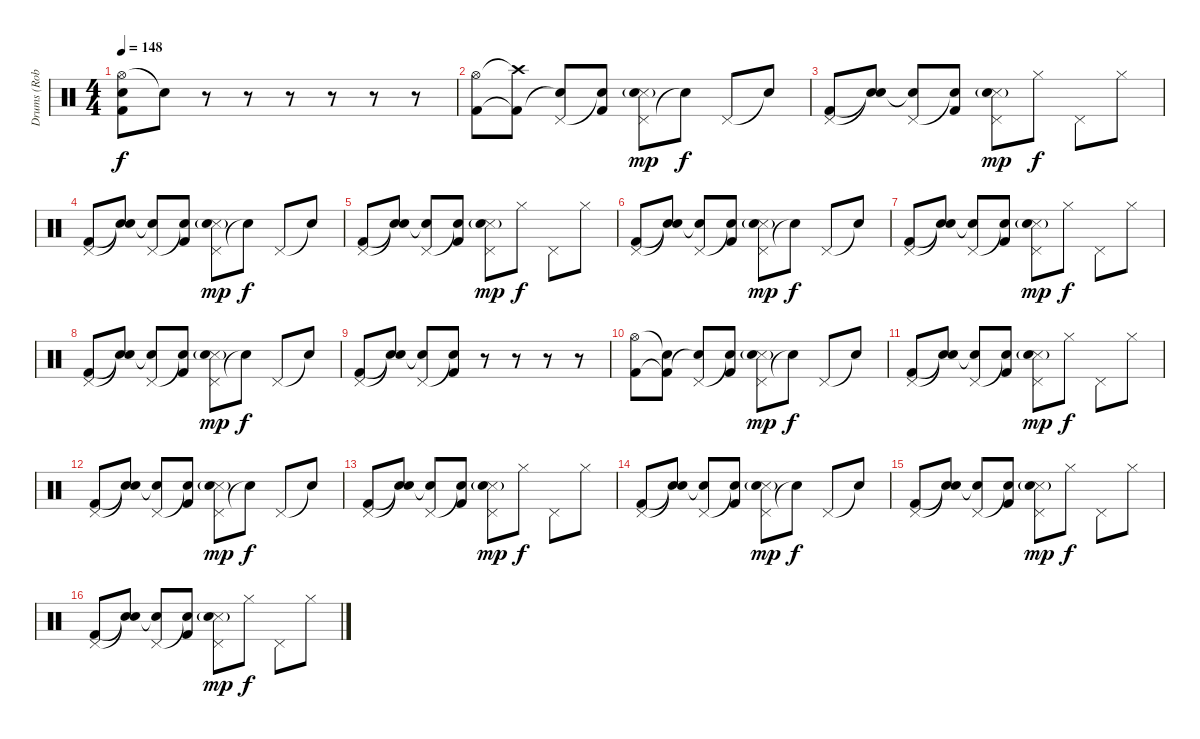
\track ("Drums (Rob Bourdon)" "Drums (Rob") {instrument percussion}
\staff {score}
\articulation defaults
\ts (4 4)
\tempo 148
\clef neutral
\ks c
("Hi-Hat (open)" "Electric Snare (hit)" "Kick (hit) 2").8{dy f} "Snare (hit)"{t}.8 r.8 r.8 r.8 r.8 r.8 r.8 |
("Hi-Hat (open)" "Kick (hit) 2").8 ("Crash high (hit)"{t} "Kick (hit) 2"{t}).8 ("Pedal Hi-Hat (hit)" "Snare (hit)"{t}).8 ("Snare (hit)"{t} "Kick (hit) 2").8 ("Pedal Hi-Hat (hit)" "Snare (side stick) 3" "Electric Snare (hit)"{g}).8{dy mp} "Snare (hit)"{t}.8{dy f} "Pedal Hi-Hat (hit)".8 "Snare (hit)"{t}.8 |
("Pedal Hi-Hat (hit)" "Kick (hit) 2").8 ("Snare (hit)"{t} "Snare (hit)"{t}).8 ("Pedal Hi-Hat (hit)" "Snare (hit)"{t}).8 ("Snare (hit)"{t} "Kick (hit) 2").8 ("Pedal Hi-Hat (hit)" "Snare (side stick) 3" "Electric Snare (hit)"{g}).8{dy mp} "Hi-Hat (closed)".8{dy f} "Pedal Hi-Hat (hit)".8 "Hi-Hat (closed)".8 |
("Pedal Hi-Hat (hit)" "Kick (hit) 2").8 ("Snare (hit)"{t} "Snare (hit)"{t}).8 ("Pedal Hi-Hat (hit)" "Snare (hit)"{t}).8 ("Snare (hit)"{t} "Kick (hit) 2").8 ("Pedal Hi-Hat (hit)" "Snare (side stick) 3" "Electric Snare (hit)"{g}).8{dy mp} "Snare (hit)"{t}.8{dy f} "Pedal Hi-Hat (hit)".8 "Snare (hit)"{t}.8 |
("Pedal Hi-Hat (hit)" "Kick (hit) 2").8 ("Snare (hit)"{t} "Snare (hit)"{t}).8 ("Pedal Hi-Hat (hit)" "Snare (hit)"{t}).8 ("Snare (hit)"{t} "Kick (hit) 2").8 ("Pedal Hi-Hat (hit)" "Snare (side stick) 3" "Electric Snare (hit)"{g}).8{dy mp} "Hi-Hat (closed)".8{dy f} "Pedal Hi-Hat (hit)".8 "Hi-Hat (closed)".8 |
("Pedal Hi-Hat (hit)" "Kick (hit) 2").8 ("Snare (hit)"{t} "Snare (hit)"{t}).8 ("Pedal Hi-Hat (hit)" "Snare (hit)"{t}).8 ("Snare (hit)"{t} "Kick (hit) 2").8 ("Pedal Hi-Hat (hit)" "Snare (side stick) 3" "Electric Snare (hit)"{g}).8{dy mp} "Snare (hit)"{t}.8{dy f} "Pedal Hi-Hat (hit)".8 "Snare (hit)"{t}.8 |
("Pedal Hi-Hat (hit)" "Kick (hit) 2").8 ("Snare (hit)"{t} "Snare (hit)"{t}).8 ("Pedal Hi-Hat (hit)" "Snare (hit)"{t}).8 ("Snare (hit)"{t} "Kick (hit) 2").8 ("Pedal Hi-Hat (hit)" "Snare (side stick) 3" "Electric Snare (hit)"{g}).8{dy mp} "Hi-Hat (closed)".8{dy f} "Pedal Hi-Hat (hit)".8 "Hi-Hat (closed)".8 |
("Pedal Hi-Hat (hit)" "Kick (hit) 2").8 ("Snare (hit)"{t} "Snare (hit)"{t}).8 ("Pedal Hi-Hat (hit)" "Snare (hit)"{t}).8 ("Snare (hit)"{t} "Kick (hit) 2").8 ("Pedal Hi-Hat (hit)" "Snare (side stick) 3" "Electric Snare (hit)"{g}).8{dy mp} "Snare (hit)"{t}.8{dy f} "Pedal Hi-Hat (hit)".8 "Snare (hit)"{t}.8 |
("Pedal Hi-Hat (hit)" "Kick (hit) 2").8 ("Snare (hit)"{t} "Snare (hit)"{t}).8 ("Pedal Hi-Hat (hit)" "Snare (hit)"{t}).8 ("Snare (hit)"{t} "Kick (hit) 2").8 r.8 r.8 r.8 r.8 |
("Hi-Hat (open)" "Kick (hit) 2").8 ("Snare (hit)"{t} "Kick (hit) 2"{t}).8 ("Pedal Hi-Hat (hit)" "Snare (hit)"{t}).8 ("Snare (hit)"{t} "Kick (hit) 2").8 ("Pedal Hi-Hat (hit)" "Snare (side stick) 3" "Electric Snare (hit)"{g}).8{dy mp} "Snare (hit)"{t}.8{dy f} "Pedal Hi-Hat (hit)".8 "Snare (hit)"{t}.8 |
("Pedal Hi-Hat (hit)" "Kick (hit) 2").8 ("Snare (hit)"{t} "Snare (hit)"{t}).8 ("Pedal Hi-Hat (hit)" "Snare (hit)"{t}).8 ("Snare (hit)"{t} "Kick (hit) 2").8 ("Pedal Hi-Hat (hit)" "Snare (side stick) 3" "Electric Snare (hit)"{g}).8{dy mp} "Hi-Hat (closed)".8{dy f} "Pedal Hi-Hat (hit)".8 "Hi-Hat (closed)".8 |
("Pedal Hi-Hat (hit)" "Kick (hit) 2").8 ("Snare (hit)"{t} "Snare (hit)"{t}).8 ("Pedal Hi-Hat (hit)" "Snare (hit)"{t}).8 ("Snare (hit)"{t} "Kick (hit) 2").8 ("Pedal Hi-Hat (hit)" "Snare (side stick) 3" "Electric Snare (hit)"{g}).8{dy mp} "Snare (hit)"{t}.8{dy f} "Pedal Hi-Hat (hit)".8 "Snare (hit)"{t}.8 |
("Pedal Hi-Hat (hit)" "Kick (hit) 2").8 ("Snare (hit)"{t} "Snare (hit)"{t}).8 ("Pedal Hi-Hat (hit)" "Snare (hit)"{t}).8 ("Snare (hit)"{t} "Kick (hit) 2").8 ("Pedal Hi-Hat (hit)" "Snare (side stick) 3" "Electric Snare (hit)"{g}).8{dy mp} "Hi-Hat (closed)".8{dy f} "Pedal Hi-Hat (hit)".8 "Hi-Hat (closed)".8 |
("Pedal Hi-Hat (hit)" "Kick (hit) 2").8 ("Snare (hit)"{t} "Snare (hit)"{t}).8 ("Pedal Hi-Hat (hit)" "Snare (hit)"{t}).8 ("Snare (hit)"{t} "Kick (hit) 2").8 ("Pedal Hi-Hat (hit)" "Snare (side stick) 3" "Electric Snare (hit)"{g}).8{dy mp} "Snare (hit)"{t}.8{dy f} "Pedal Hi-Hat (hit)".8 "Snare (hit)"{t}.8 |
("Pedal Hi-Hat (hit)" "Kick (hit) 2").8 ("Snare (hit)"{t} "Snare (hit)"{t}).8 ("Pedal Hi-Hat (hit)" "Snare (hit)"{t}).8 ("Snare (hit)"{t} "Kick (hit) 2").8 ("Pedal Hi-Hat (hit)" "Snare (side stick) 3" "Electric Snare (hit)"{g}).8{dy mp} "Hi-Hat (closed)".8{dy f} "Pedal Hi-Hat (hit)".8 "Hi-Hat (closed)".8 |
("Pedal Hi-Hat (hit)" "Kick (hit) 2").8 ("Snare (hit)"{t} "Snare (hit)"{t}).8 ("Pedal Hi-Hat (hit)" "Snare (hit)"{t}).8 ("Snare (hit)"{t} "Kick (hit) 2").8 ("Pedal Hi-Hat (hit)" "Snare (side stick) 3" "Electric Snare (hit)"{g}).8{dy mp} "Hi-Hat (closed)".8{dy f} "Pedal Hi-Hat (hit)".8 "Hi-Hat (closed)".8
